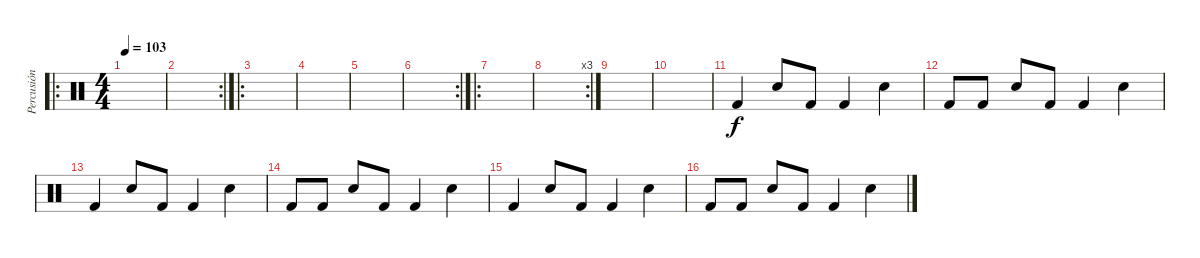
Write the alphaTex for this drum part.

\track ("Percusión" "Percusión") {instrument percussion}
\staff {score}
\articulation defaults
\ro
\ts (4 4)
\tempo 103
\clef neutral
\ks c
|
\rc 2
|
\ro
|
|
|
\rc 2
|
\ro
|
\rc 3
|
|
|
"Kick (hit) 2".4 "Electric Snare (hit)".8 "Kick (hit) 2".8 "Kick (hit) 2".4 "Electric Snare (hit)".4 |
"Kick (hit) 2".8 "Kick (hit) 2".8 "Electric Snare (hit)".8 "Kick (hit) 2".8 "Kick (hit) 2".4 "Electric Snare (hit)".4 |
"Kick (hit) 2".4 "Electric Snare (hit)".8 "Kick (hit) 2".8 "Kick (hit) 2".4 "Electric Snare (hit)".4 |
"Kick (hit) 2".8 "Kick (hit) 2".8 "Electric Snare (hit)".8 "Kick (hit) 2".8 "Kick (hit) 2".4 "Electric Snare (hit)".4 |
"Kick (hit) 2".4 "Electric Snare (hit)".8 "Kick (hit) 2".8 "Kick (hit) 2".4 "Electric Snare (hit)".4 |
"Kick (hit) 2".8 "Kick (hit) 2".8 "Electric Snare (hit)".8 "Kick (hit) 2".8 "Kick (hit) 2".4 "Electric Snare (hit)".4
